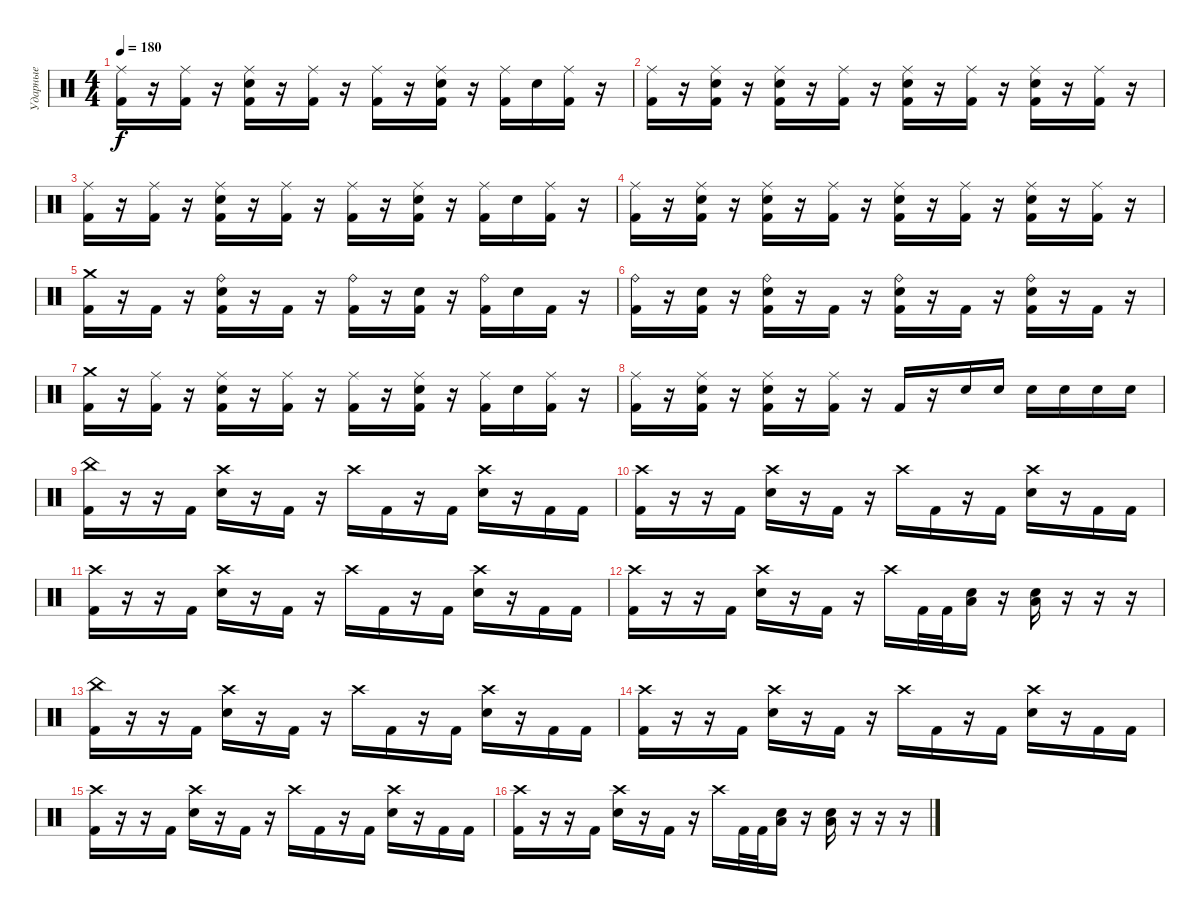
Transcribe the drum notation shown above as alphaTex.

\track ("Ударные" "Ударные") {instrument percussion}
\staff {score}
\articulation defaults
\ts (4 4)
\tempo 180
\clef neutral
\ks c
("Ride (middle)" "Kick (hit) 2").16{dy f} r.16 ("Ride (middle)" "Kick (hit) 2").16 r.16 ("Ride (middle)" "Electric Snare (hit)" "Kick (hit) 2").16 r.16 ("Ride (middle)" "Kick (hit) 2").16 r.16 ("Ride (middle)" "Kick (hit) 2").16 r.16 ("Ride (middle)" "Electric Snare (hit)" "Kick (hit) 2").16 r.16 ("Ride (middle)" "Kick (hit) 2").16 "Electric Snare (hit)".16 ("Ride (middle)" "Kick (hit) 2").16 r.16 |
("Ride (middle)" "Kick (hit) 2").16 r.16 ("Ride (middle)" "Electric Snare (hit)" "Kick (hit) 2").16 r.16 ("Ride (middle)" "Electric Snare (hit)" "Kick (hit) 2").16 r.16 ("Ride (middle)" "Kick (hit) 2").16 r.16 ("Ride (middle)" "Electric Snare (hit)" "Kick (hit) 2").16 r.16 ("Ride (middle)" "Kick (hit) 2").16 r.16 ("Ride (middle)" "Electric Snare (hit)" "Kick (hit) 2").16 r.16 ("Ride (middle)" "Kick (hit) 2").16 r.16 |
("Ride (middle)" "Kick (hit) 2").16 r.16 ("Ride (middle)" "Kick (hit) 2").16 r.16 ("Ride (middle)" "Electric Snare (hit)" "Kick (hit) 2").16 r.16 ("Ride (middle)" "Kick (hit) 2").16 r.16 ("Ride (middle)" "Kick (hit) 2").16 r.16 ("Ride (middle)" "Electric Snare (hit)" "Kick (hit) 2").16 r.16 ("Ride (middle)" "Kick (hit) 2").16 "Electric Snare (hit)".16 ("Ride (middle)" "Kick (hit) 2").16 r.16 |
("Ride (middle)" "Kick (hit) 2").16 r.16 ("Ride (middle)" "Electric Snare (hit)" "Kick (hit) 2").16 r.16 ("Ride (middle)" "Electric Snare (hit)" "Kick (hit) 2").16 r.16 ("Ride (middle)" "Kick (hit) 2").16 r.16 ("Ride (middle)" "Electric Snare (hit)" "Kick (hit) 2").16 r.16 ("Ride (middle)" "Kick (hit) 2").16 r.16 ("Ride (middle)" "Electric Snare (hit)" "Kick (hit) 2").16 r.16 ("Ride (middle)" "Kick (hit) 2").16 r.16 |
("Crash medium (hit)" "Kick (hit) 2").16 r.16 "Kick (hit) 2".16 r.16 ("Ride (bell)" "Electric Snare (hit)" "Kick (hit) 2").16 r.16 "Kick (hit) 2".16 r.16 ("Ride (bell)" "Kick (hit) 2").16 r.16 ("Electric Snare (hit)" "Kick (hit) 2").16 r.16 ("Ride (bell)" "Kick (hit) 2").16 "Electric Snare (hit)".16 "Kick (hit) 2".16 r.16 |
("Ride (bell)" "Kick (hit) 2").16 r.16 ("Electric Snare (hit)" "Kick (hit) 2").16 r.16 ("Ride (bell)" "Electric Snare (hit)" "Kick (hit) 2").16 r.16 "Kick (hit) 2".16 r.16 ("Ride (bell)" "Electric Snare (hit)" "Kick (hit) 2").16 r.16 "Kick (hit) 2".16 r.16 ("Ride (bell)" "Electric Snare (hit)" "Kick (hit) 2").16 r.16 "Kick (hit) 2".16 r.16 |
("Crash medium (hit)" "Kick (hit) 2").16 r.16 ("Ride (middle)" "Kick (hit) 2").16 r.16 ("Ride (middle)" "Electric Snare (hit)" "Kick (hit) 2").16 r.16 ("Ride (middle)" "Kick (hit) 2").16 r.16 ("Ride (middle)" "Kick (hit) 2").16 r.16 ("Ride (middle)" "Electric Snare (hit)" "Kick (hit) 2").16 r.16 ("Ride (middle)" "Kick (hit) 2").16 "Electric Snare (hit)".16 ("Ride (middle)" "Kick (hit) 2").16 r.16 |
("Ride (middle)" "Kick (hit) 2").16 r.16 ("Ride (middle)" "Electric Snare (hit)" "Kick (hit) 2").16 r.16 ("Ride (middle)" "Electric Snare (hit)" "Kick (hit) 2").16 r.16 ("Ride (middle)" "Kick (hit) 2").16 r.16 "Kick (hit) 2".16 r.16 "Electric Snare (hit)".16 "Electric Snare (hit)".16 "Electric Snare (hit)".16 "Electric Snare (hit)".16 "Electric Snare (hit)".16 "Electric Snare (hit)".16 |
("China (hit)" "Kick (hit) 2").16 r.16 r.16 "Kick (hit) 2".16 ("Crash high (hit)" "Electric Snare (hit)").16 r.16 "Kick (hit) 2".16 r.16 "Crash high (hit)".16 "Kick (hit) 2".16 r.16 "Kick (hit) 2".16 ("Crash high (hit)" "Electric Snare (hit)").16 r.16 "Kick (hit) 2".16 "Kick (hit) 2".16 |
("Crash high (hit)" "Kick (hit) 2").16 r.16 r.16 "Kick (hit) 2".16 ("Crash high (hit)" "Electric Snare (hit)").16 r.16 "Kick (hit) 2".16 r.16 "Crash high (hit)".16 "Kick (hit) 2".16 r.16 "Kick (hit) 2".16 ("Crash high (hit)" "Electric Snare (hit)").16 r.16 "Kick (hit) 2".16 "Kick (hit) 2".16 |
("Crash high (hit)" "Kick (hit) 2").16 r.16 r.16 "Kick (hit) 2".16 ("Crash high (hit)" "Electric Snare (hit)").16 r.16 "Kick (hit) 2".16 r.16 "Crash high (hit)".16 "Kick (hit) 2".16 r.16 "Kick (hit) 2".16 ("Crash high (hit)" "Electric Snare (hit)").16 r.16 "Kick (hit) 2".16 "Kick (hit) 2".16 |
("Crash high (hit)" "Kick (hit) 2").16 r.16 r.16 "Kick (hit) 2".16 ("Crash high (hit)" "Electric Snare (hit)").16 r.16 "Kick (hit) 2".16 r.16 "Crash high (hit)".16 "Kick (hit) 2".32 "Kick (hit) 2".32 ("Low Tom (hit)" "Electric Snare (hit)").16 r.16 ("Low Tom (hit)" "Electric Snare (hit)").16 r.16 r.16 r.16 |
("China (hit)" "Kick (hit) 2").16 r.16 r.16 "Kick (hit) 2".16 ("Crash high (hit)" "Electric Snare (hit)").16 r.16 "Kick (hit) 2".16 r.16 "Crash high (hit)".16 "Kick (hit) 2".16 r.16 "Kick (hit) 2".16 ("Crash high (hit)" "Electric Snare (hit)").16 r.16 "Kick (hit) 2".16 "Kick (hit) 2".16 |
("Crash high (hit)" "Kick (hit) 2").16 r.16 r.16 "Kick (hit) 2".16 ("Crash high (hit)" "Electric Snare (hit)").16 r.16 "Kick (hit) 2".16 r.16 "Crash high (hit)".16 "Kick (hit) 2".16 r.16 "Kick (hit) 2".16 ("Crash high (hit)" "Electric Snare (hit)").16 r.16 "Kick (hit) 2".16 "Kick (hit) 2".16 |
("Crash high (hit)" "Kick (hit) 2").16 r.16 r.16 "Kick (hit) 2".16 ("Crash high (hit)" "Electric Snare (hit)").16 r.16 "Kick (hit) 2".16 r.16 "Crash high (hit)".16 "Kick (hit) 2".16 r.16 "Kick (hit) 2".16 ("Crash high (hit)" "Electric Snare (hit)").16 r.16 "Kick (hit) 2".16 "Kick (hit) 2".16 |
("Crash high (hit)" "Kick (hit) 2").16 r.16 r.16 "Kick (hit) 2".16 ("Crash high (hit)" "Electric Snare (hit)").16 r.16 "Kick (hit) 2".16 r.16 "Crash high (hit)".16 "Kick (hit) 2".32 "Kick (hit) 2".32 ("Low Tom (hit)" "Electric Snare (hit)").16 r.16 ("Low Tom (hit)" "Electric Snare (hit)").16 r.16 r.16 r.16
